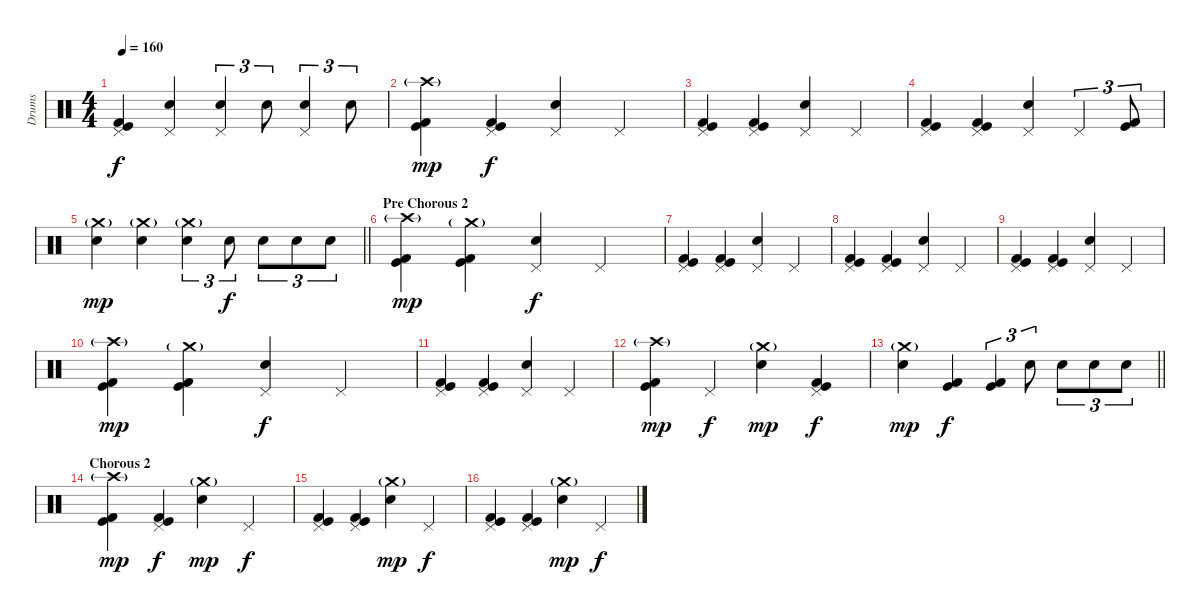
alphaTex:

\track ("Drums" "Drums") {instrument percussion}
\staff {score}
\articulation defaults
\ts (4 4)
\tempo 160
\clef neutral
\ks c
("Pedal Hi-Hat (hit)" "Kick (hit)" "Kick (hit) 2").4{dy f} ("Pedal Hi-Hat (hit)" "Electric Snare (hit)").4 ("Pedal Hi-Hat (hit)" "Electric Snare (hit)").4{tu (3 2)} "Electric Snare (hit)".8{tu (3 2)} ("Pedal Hi-Hat (hit)" "Electric Snare (hit)").4{tu (3 2)} "Electric Snare (hit)".8{tu (3 2)} |
("Crash high (hit)"{g} "Kick (hit)" "Kick (hit) 2").4{dy mp} ("Pedal Hi-Hat (hit)" "Kick (hit)" "Kick (hit) 2").4{dy f} ("Pedal Hi-Hat (hit)" "Electric Snare (hit)").4 "Pedal Hi-Hat (hit)".4 |
("Pedal Hi-Hat (hit)" "Kick (hit)" "Kick (hit) 2").4 ("Pedal Hi-Hat (hit)" "Kick (hit)" "Kick (hit) 2").4 ("Pedal Hi-Hat (hit)" "Electric Snare (hit)").4 "Pedal Hi-Hat (hit)".4 |
("Pedal Hi-Hat (hit)" "Kick (hit)" "Kick (hit) 2").4 ("Pedal Hi-Hat (hit)" "Kick (hit)" "Kick (hit) 2").4 ("Pedal Hi-Hat (hit)" "Electric Snare (hit)").4 "Pedal Hi-Hat (hit)".4{tu (3 2)} ("Kick (hit)" "Kick (hit) 2").8{tu (3 2)} |
\barLineRight lightlight
("Crash medium (hit)"{g} "Electric Snare (hit)").4{dy mp} ("Crash medium (hit)"{g} "Electric Snare (hit)").4 ("Crash medium (hit)"{g} "Electric Snare (hit)").4{tu (3 2)} "Electric Snare (hit)".8{tu (3 2) dy f} "Electric Snare (hit)".8{tu (3 2)} "Electric Snare (hit)".8{tu (3 2)} "Electric Snare (hit)".8{tu (3 2)} |
\section ("" "Pre Chorous 2")
("Crash high (hit)"{g} "Kick (hit)" "Kick (hit) 2").4{dy mp} ("Crash medium (hit)"{g} "Kick (hit)" "Kick (hit) 2").4 ("Pedal Hi-Hat (hit)" "Electric Snare (hit)").4{dy f} "Pedal Hi-Hat (hit)".4 |
("Pedal Hi-Hat (hit)" "Kick (hit)" "Kick (hit) 2").4 ("Pedal Hi-Hat (hit)" "Kick (hit)" "Kick (hit) 2").4 ("Pedal Hi-Hat (hit)" "Electric Snare (hit)").4 "Pedal Hi-Hat (hit)".4 |
("Pedal Hi-Hat (hit)" "Kick (hit)" "Kick (hit) 2").4 ("Pedal Hi-Hat (hit)" "Kick (hit)" "Kick (hit) 2").4 ("Pedal Hi-Hat (hit)" "Electric Snare (hit)").4 "Pedal Hi-Hat (hit)".4 |
("Pedal Hi-Hat (hit)" "Kick (hit)" "Kick (hit) 2").4 ("Pedal Hi-Hat (hit)" "Kick (hit)" "Kick (hit) 2").4 ("Pedal Hi-Hat (hit)" "Electric Snare (hit)").4 "Pedal Hi-Hat (hit)".4 |
("Crash high (hit)"{g} "Kick (hit)" "Kick (hit) 2").4{dy mp} ("Crash medium (hit)"{g} "Kick (hit)" "Kick (hit) 2").4 ("Pedal Hi-Hat (hit)" "Electric Snare (hit)").4{dy f} "Pedal Hi-Hat (hit)".4 |
("Pedal Hi-Hat (hit)" "Kick (hit)" "Kick (hit) 2").4 ("Pedal Hi-Hat (hit)" "Kick (hit)" "Kick (hit) 2").4 ("Pedal Hi-Hat (hit)" "Electric Snare (hit)").4 "Pedal Hi-Hat (hit)".4 |
("Crash high (hit)"{g} "Kick (hit)" "Kick (hit) 2").4{dy mp} "Pedal Hi-Hat (hit)".4{dy f} ("Crash medium (hit)"{g} "Electric Snare (hit)").4{dy mp} ("Pedal Hi-Hat (hit)" "Kick (hit)" "Kick (hit) 2").4{dy f} |
\barLineRight lightlight
("Crash medium (hit)"{g} "Electric Snare (hit)").4{dy mp} ("Kick (hit)" "Kick (hit) 2").4{dy f} ("Kick (hit)" "Kick (hit) 2").4{tu (3 2)} "Electric Snare (hit)".8{tu (3 2)} "Electric Snare (hit)".8{tu (3 2)} "Electric Snare (hit)".8{tu (3 2)} "Electric Snare (hit)".8{tu (3 2)} |
\section ("" "Chorous 2")
("Crash high (hit)"{g} "Kick (hit)" "Kick (hit) 2").4{dy mp} ("Pedal Hi-Hat (hit)" "Kick (hit)" "Kick (hit) 2").4{dy f} ("Crash medium (hit)"{g} "Electric Snare (hit)").4{dy mp} "Pedal Hi-Hat (hit)".4{dy f} |
("Pedal Hi-Hat (hit)" "Kick (hit)" "Kick (hit) 2").4 ("Pedal Hi-Hat (hit)" "Kick (hit)" "Kick (hit) 2").4 ("Crash medium (hit)"{g} "Electric Snare (hit)").4{dy mp} "Pedal Hi-Hat (hit)".4{dy f} |
("Pedal Hi-Hat (hit)" "Kick (hit)" "Kick (hit) 2").4 ("Pedal Hi-Hat (hit)" "Kick (hit)" "Kick (hit) 2").4 ("Crash medium (hit)"{g} "Electric Snare (hit)").4{dy mp} "Pedal Hi-Hat (hit)".4{dy f}
